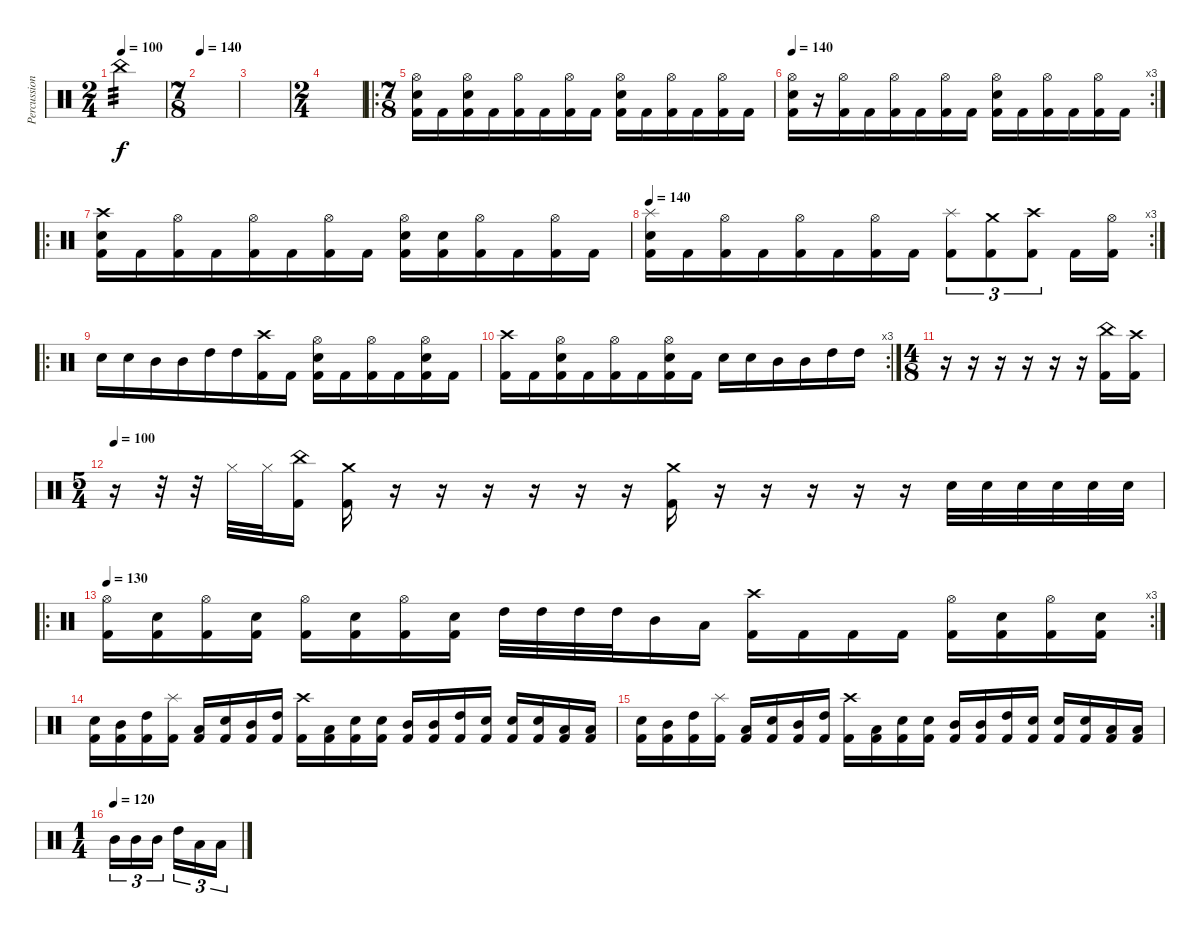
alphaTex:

\track ("Percussion" "Percussion") {instrument percussion}
\staff {score}
\articulation defaults
\ts (2 4)
\tempo 100
\clef neutral
\ks c "China (hit)".2{tp 3 dy f}
|
\ts (7 8)
\tempo 140
|
|
\ts (2 4)
|
\ro
\ts (7 8)
("Hi-Hat (open)" "Snare (hit) 2" "Kick (hit) 2").16 "Kick (hit) 2".16 ("Hi-Hat (open)" "Snare (hit) 2" "Kick (hit) 2").16 "Kick (hit) 2".16 ("Hi-Hat (open)" "Kick (hit) 2").16 "Kick (hit) 2".16 ("Hi-Hat (open)" "Kick (hit) 2").16 "Kick (hit) 2".16 ("Hi-Hat (open)" "Snare (hit) 2" "Kick (hit) 2").16 "Kick (hit) 2".16 ("Hi-Hat (open)" "Kick (hit) 2").16 "Kick (hit) 2".16 ("Hi-Hat (open)" "Kick (hit) 2").16 "Kick (hit) 2".16 |
\rc 3
\tempo 140
("Hi-Hat (open)" "Snare (hit) 2" "Kick (hit) 2").16 r.16 ("Hi-Hat (open)" "Kick (hit) 2").16 "Kick (hit) 2".16 ("Hi-Hat (open)" "Kick (hit) 2").16 "Kick (hit) 2".16 ("Hi-Hat (open)" "Kick (hit) 2").16 "Kick (hit) 2".16 ("Hi-Hat (open)" "Snare (hit) 2" "Kick (hit) 2").16 "Kick (hit) 2".16 ("Hi-Hat (open)" "Kick (hit) 2").16 "Kick (hit) 2".16 ("Hi-Hat (open)" "Kick (hit) 2").16 "Kick (hit) 2".16 |
\ro
("Crash high (hit)" "Snare (hit) 2" "Kick (hit) 2").16 "Kick (hit) 2".16 ("Hi-Hat (open)" "Kick (hit) 2").16 "Kick (hit) 2".16 ("Hi-Hat (open)" "Kick (hit) 2").16 "Kick (hit) 2".16 ("Hi-Hat (open)" "Kick (hit) 2").16 "Kick (hit) 2".16 ("Hi-Hat (open)" "Snare (hit) 2" "Kick (hit) 2").16 ("Snare (hit) 2" "Kick (hit) 2").16 ("Hi-Hat (open)" "Kick (hit) 2").16 "Kick (hit) 2".16 ("Hi-Hat (open)" "Kick (hit) 2").16 "Kick (hit) 2".16 |
\rc 3
\tempo 140
("Splash (hit)" "Snare (hit) 2" "Kick (hit) 2").16 "Kick (hit) 2".16 ("Hi-Hat (open)" "Kick (hit) 2").16 "Kick (hit) 2".16 ("Hi-Hat (open)" "Kick (hit) 2").16 "Kick (hit) 2".16 ("Hi-Hat (open)" "Kick (hit) 2").16 "Kick (hit) 2".16 ("Splash (hit)" "Kick (hit) 2").8{tu (3 2)} ("Crash medium (hit)" "Kick (hit) 2").8{tu (3 2)} ("Crash high (hit)" "Kick (hit) 2").8{tu (3 2)} "Kick (hit) 2".16 ("Hi-Hat (open)" "Kick (hit) 2").16 |
\ro "Snare (hit) 2".16 "Snare (hit) 2".16 "Mid Tom (hit)".16 "Mid Tom (hit)".16 "High Tom (hit)".16 "High Tom (hit)".16
("Crash high (hit)" "Kick (hit) 2").16 "Kick (hit) 2".16 ("Hi-Hat (open)" "Snare (hit) 2" "Kick (hit) 2").16 "Kick (hit) 2".16 ("Hi-Hat (open)" "Kick (hit) 2").16 "Kick (hit) 2".16 ("Hi-Hat (open)" "Snare (hit) 2" "Kick (hit) 2").16 "Kick (hit) 2".16 |
\rc 3
("Crash high (hit)" "Kick (hit) 2").16 "Kick (hit) 2".16 ("Hi-Hat (open)" "Snare (hit) 2" "Kick (hit) 2").16 "Kick (hit) 2".16 ("Hi-Hat (open)" "Kick (hit) 2").16 "Kick (hit) 2".16 ("Hi-Hat (open)" "Snare (hit) 2" "Kick (hit) 2").16 "Kick (hit) 2".16 "Snare (hit) 2".16 "Snare (hit) 2".16 "Mid Tom (hit)".16 "Mid Tom (hit)".16 "High Tom (hit)".16 "High Tom (hit)".16 |
\ts (4 8)
r.16 r.16 r.16 r.16 r.16 r.16 ("Kick (hit) 2" "China (hit)").16 ("Kick (hit) 2" "Crash high (hit)").16 |
\ts (5 4)
\tempo 100
r.16 r.32 r.32 "Hi-Hat (closed)".32 "Hi-Hat (closed)".32 ("China (hit)" "Kick (hit) 2").16 ("Crash medium (hit)" "Kick (hit) 2").16 r.16 r.16 r.16 r.16 r.16 r.16 ("Crash medium (hit)" "Kick (hit) 2").16 r.16 r.16 r.16 r.16 r.16 "Snare (hit) 2".32 "Snare (hit) 2".32 "Snare (hit) 2".32 "Snare (hit) 2".32 "Snare (hit) 2".32 "Snare (hit) 2".32 |
\ro
\rc 3
\tempo 130
("Kick (hit) 2" "Hi-Hat (open)").16 ("Kick (hit) 2" "Snare (hit) 2").16 ("Kick (hit) 2" "Hi-Hat (open)").16 ("Kick (hit) 2" "Snare (hit) 2").16 ("Kick (hit) 2" "Hi-Hat (open)").16 ("Kick (hit) 2" "Snare (hit) 2").16 ("Kick (hit) 2" "Hi-Hat (open)").16 ("Kick (hit) 2" "Snare (hit) 2").16 "High Tom (hit)".32 "High Tom (hit)".32 "High Tom (hit)".32 "High Tom (hit)".32 "Mid Tom (hit)".16 "Low Tom (hit)".16 ("Kick (hit) 2" "Crash high (hit)").16 "Kick (hit) 2".16 "Kick (hit) 2".16 "Kick (hit) 2".16 ("Kick (hit) 2" "Hi-Hat (open)").16 ("Kick (hit) 2" "Snare (hit) 2").16 ("Kick (hit) 2" "Hi-Hat (open)").16 ("Kick (hit) 2" "Snare (hit) 2").16 |
("Snare (hit) 2" "Kick (hit) 2").16 ("Mid Tom (hit)" "Kick (hit) 2").16 ("High Tom (hit)" "Kick (hit) 2").16 ("Splash (hit)" "Kick (hit) 2").16 ("Low Tom (hit)" "Kick (hit) 2").16 ("Snare (hit) 2" "Kick (hit) 2").16 ("Mid Tom (hit)" "Kick (hit) 2").16 ("High Tom (hit)" "Kick (hit) 2").16 ("Crash high (hit)" "Kick (hit) 2").16 ("Low Tom (hit)" "Kick (hit) 2").16 ("Snare (hit) 2" "Kick (hit) 2").16 ("Snare (hit) 2" "Kick (hit) 2").16 ("Mid Tom (hit)" "Kick (hit) 2").16 ("Mid Tom (hit)" "Kick (hit) 2").16 ("High Tom (hit)" "Kick (hit) 2").16 ("Snare (hit) 2" "Kick (hit) 2").16 ("Snare (hit) 2" "Kick (hit) 2").16 ("Snare (hit) 2" "Kick (hit) 2").16 ("Low Tom (hit)" "Kick (hit) 2").16 ("Low Tom (hit)" "Kick (hit) 2").16 |
("Snare (hit) 2" "Kick (hit) 2").16 ("Mid Tom (hit)" "Kick (hit) 2").16 ("High Tom (hit)" "Kick (hit) 2").16 ("Splash (hit)" "Kick (hit) 2").16 ("Low Tom (hit)" "Kick (hit) 2").16 ("Snare (hit) 2" "Kick (hit) 2").16 ("Mid Tom (hit)" "Kick (hit) 2").16 ("High Tom (hit)" "Kick (hit) 2").16 ("Crash high (hit)" "Kick (hit) 2").16 ("Low Tom (hit)" "Kick (hit) 2").16 ("Snare (hit) 2" "Kick (hit) 2").16 ("Snare (hit) 2" "Kick (hit) 2").16 ("Mid Tom (hit)" "Kick (hit) 2").16 ("Mid Tom (hit)" "Kick (hit) 2").16 ("High Tom (hit)" "Kick (hit) 2").16 ("Snare (hit) 2" "Kick (hit) 2").16 ("Snare (hit) 2" "Kick (hit) 2").16 ("Snare (hit) 2" "Kick (hit) 2").16 ("Low Tom (hit)" "Kick (hit) 2").16 ("Low Tom (hit)" "Kick (hit) 2").16 |
\ts (1 4)
\tempo (120)
"Mid Tom (hit)".16{tu (3 2)} "Mid Tom (hit)".16{tu (3 2)} "Mid Tom (hit)".16{tu (3 2) beam splitsecondary} "High Tom (hit)".16{tu (3 2)} "Low Tom (hit)".16{tu (3 2)} "Low Tom (hit)".16{tu (3 2)}
